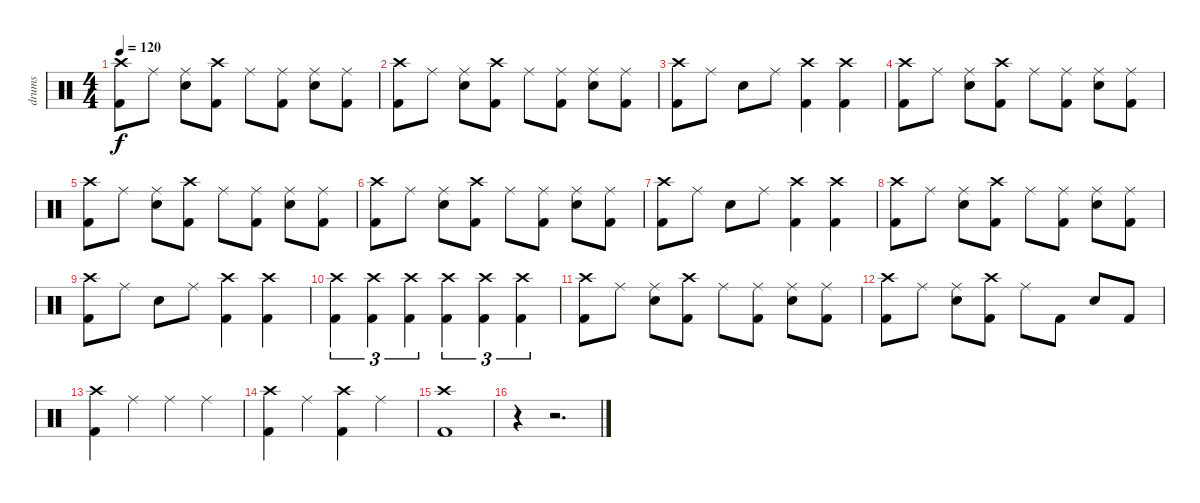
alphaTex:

\track ("drums" "drums") {instrument percussion}
\staff {score}
\articulation defaults
\ts (4 4)
\tempo 120
\clef neutral
\ks c
("Crash high (hit)" "Kick (hit) 2").8{dy f} "Ride (middle)".8 ("Ride (middle)" "Snare (hit) 2").8 ("Crash high (hit)" "Kick (hit) 2").8 "Ride (middle)".8 ("Ride (middle)" "Kick (hit) 2").8 ("Ride (middle)" "Snare (hit) 2").8 ("Ride (middle)" "Kick (hit) 2").8 |
("Crash high (hit)" "Kick (hit) 2").8 "Ride (middle)".8 ("Ride (middle)" "Snare (hit) 2").8 ("Crash high (hit)" "Kick (hit) 2").8 "Ride (middle)".8 ("Ride (middle)" "Kick (hit) 2").8 ("Ride (middle)" "Snare (hit) 2").8 ("Ride (middle)" "Kick (hit) 2").8 |
("Crash high (hit)" "Kick (hit) 2").8 "Ride (middle)".8 "Snare (hit) 2".8 "Ride (middle)".8 ("Crash high (hit)" "Kick (hit) 2").4 ("Crash high (hit)" "Kick (hit) 2").4 |
("Crash high (hit)" "Kick (hit) 2").8 "Ride (middle)".8 ("Ride (middle)" "Snare (hit) 2").8 ("Crash high (hit)" "Kick (hit) 2").8 "Ride (middle)".8 ("Ride (middle)" "Kick (hit) 2").8 ("Ride (middle)" "Snare (hit) 2").8 ("Ride (middle)" "Kick (hit) 2").8 |
("Crash high (hit)" "Kick (hit) 2").8 "Ride (middle)".8 ("Ride (middle)" "Snare (hit) 2").8 ("Crash high (hit)" "Kick (hit) 2").8 "Ride (middle)".8 ("Ride (middle)" "Kick (hit) 2").8 ("Ride (middle)" "Snare (hit) 2").8 ("Ride (middle)" "Kick (hit) 2").8 |
("Crash high (hit)" "Kick (hit) 2").8 "Ride (middle)".8 ("Ride (middle)" "Snare (hit) 2").8 ("Crash high (hit)" "Kick (hit) 2").8 "Ride (middle)".8 ("Ride (middle)" "Kick (hit) 2").8 ("Ride (middle)" "Snare (hit) 2").8 ("Ride (middle)" "Kick (hit) 2").8 |
("Crash high (hit)" "Kick (hit) 2").8 "Ride (middle)".8 "Snare (hit) 2".8 "Ride (middle)".8 ("Crash high (hit)" "Kick (hit) 2").4 ("Crash high (hit)" "Kick (hit) 2").4 |
("Crash high (hit)" "Kick (hit) 2").8 "Ride (middle)".8 ("Ride (middle)" "Snare (hit) 2").8 ("Crash high (hit)" "Kick (hit) 2").8 "Ride (middle)".8 ("Ride (middle)" "Kick (hit) 2").8 ("Ride (middle)" "Snare (hit) 2").8 ("Ride (middle)" "Kick (hit) 2").8 |
("Crash high (hit)" "Kick (hit) 2").8 "Ride (middle)".8 "Snare (hit) 2".8 "Ride (middle)".8 ("Crash high (hit)" "Kick (hit) 2").4 ("Crash high (hit)" "Kick (hit) 2").4 |
("Crash high (hit)" "Kick (hit) 2").4{tu (3 2)} ("Crash high (hit)" "Kick (hit) 2").4{tu (3 2)} ("Crash high (hit)" "Kick (hit) 2").4{tu (3 2)} ("Crash high (hit)" "Kick (hit) 2").4{tu (3 2)} ("Crash high (hit)" "Kick (hit) 2").4{tu (3 2)} ("Crash high (hit)" "Kick (hit) 2").4{tu (3 2)} |
("Crash high (hit)" "Kick (hit) 2").8 "Ride (middle)".8 ("Ride (middle)" "Snare (hit) 2").8 ("Crash high (hit)" "Kick (hit) 2").8 "Ride (middle)".8 ("Ride (middle)" "Kick (hit) 2").8 ("Ride (middle)" "Snare (hit) 2").8 ("Ride (middle)" "Kick (hit) 2").8 |
("Crash high (hit)" "Kick (hit) 2").8 "Ride (middle)".8 ("Ride (middle)" "Snare (hit) 2").8 ("Kick (hit) 2" "Crash high (hit)").8 "Ride (middle)".8 "Kick (hit) 2".8 "Snare (hit) 2".8 "Kick (hit) 2".8 |
("Crash high (hit)" "Kick (hit) 2").4 "Ride (middle)".4 "Ride (middle)".4 "Ride (middle)".4 |
("Crash high (hit)" "Kick (hit) 2").4 "Ride (middle)".4 ("Crash high (hit)" "Kick (hit) 2").4 "Ride (middle)".4 |
("Crash high (hit)" "Kick (hit) 2").1 |
r.4 r.2{d}
